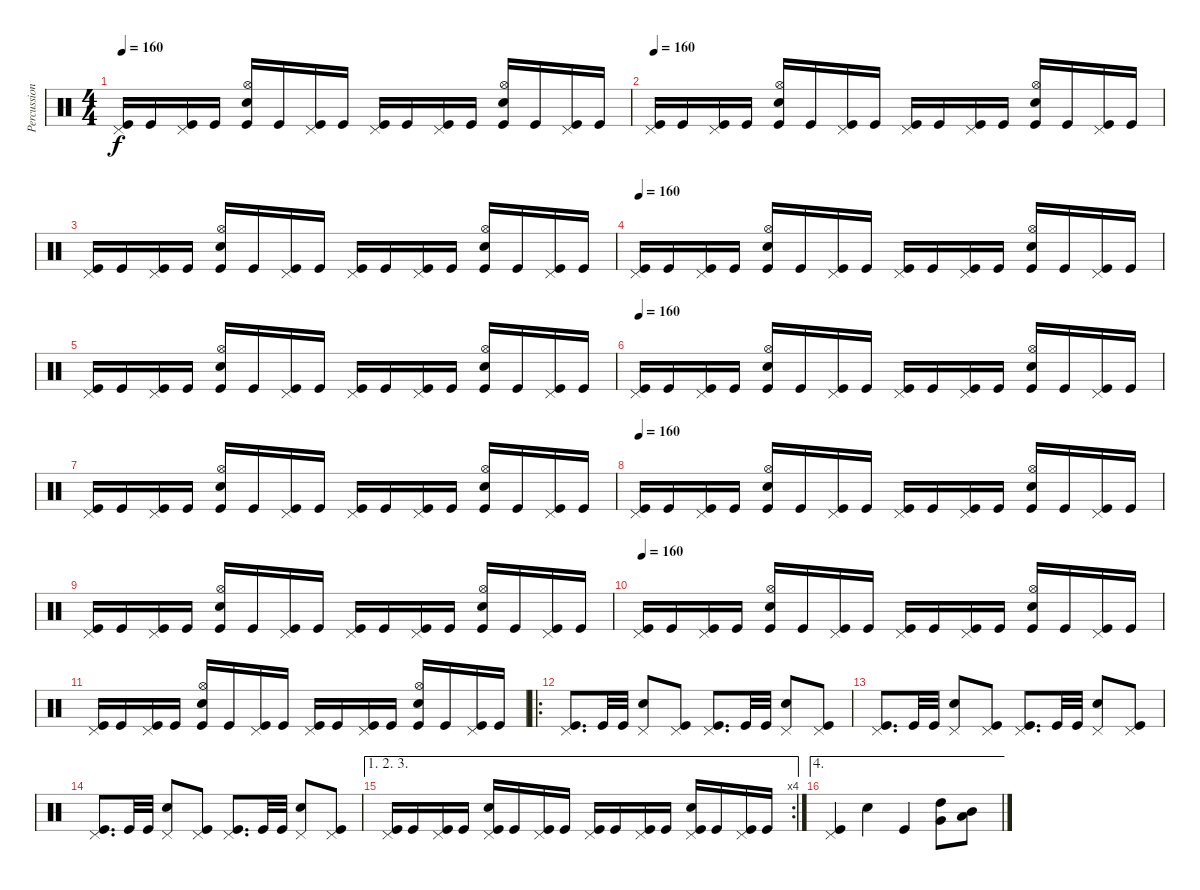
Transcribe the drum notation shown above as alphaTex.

\track ("Percussion" "Percussion") {instrument percussion}
\staff {score}
\articulation defaults
\ts (4 4)
\tempo 160
\clef neutral
\ks c
("Pedal Hi-Hat (hit)" "Kick (hit)").16{dy f} "Kick (hit)".16 ("Pedal Hi-Hat (hit)" "Kick (hit)").16 "Kick (hit)".16 ("Hi-Hat (open)" "Electric Snare (hit)" "Kick (hit)").16 "Kick (hit)".16 ("Pedal Hi-Hat (hit)" "Kick (hit)").16 "Kick (hit)".16 ("Pedal Hi-Hat (hit)" "Kick (hit)").16 "Kick (hit)".16 ("Pedal Hi-Hat (hit)" "Kick (hit)").16 "Kick (hit)".16 ("Hi-Hat (open)" "Electric Snare (hit)" "Kick (hit)").16 "Kick (hit)".16 ("Pedal Hi-Hat (hit)" "Kick (hit)").16 "Kick (hit)".16 |
\tempo 160
("Pedal Hi-Hat (hit)" "Kick (hit)").16 "Kick (hit)".16 ("Pedal Hi-Hat (hit)" "Kick (hit)").16 "Kick (hit)".16 ("Hi-Hat (open)" "Electric Snare (hit)" "Kick (hit)").16 "Kick (hit)".16 ("Pedal Hi-Hat (hit)" "Kick (hit)").16 "Kick (hit)".16 ("Pedal Hi-Hat (hit)" "Kick (hit)").16 "Kick (hit)".16 ("Pedal Hi-Hat (hit)" "Kick (hit)").16 "Kick (hit)".16 ("Hi-Hat (open)" "Electric Snare (hit)" "Kick (hit)").16 "Kick (hit)".16 ("Pedal Hi-Hat (hit)" "Kick (hit)").16 "Kick (hit)".16 |
("Pedal Hi-Hat (hit)" "Kick (hit)").16 "Kick (hit)".16 ("Pedal Hi-Hat (hit)" "Kick (hit)").16 "Kick (hit)".16 ("Hi-Hat (open)" "Electric Snare (hit)" "Kick (hit)").16 "Kick (hit)".16 ("Pedal Hi-Hat (hit)" "Kick (hit)").16 "Kick (hit)".16 ("Pedal Hi-Hat (hit)" "Kick (hit)").16 "Kick (hit)".16 ("Pedal Hi-Hat (hit)" "Kick (hit)").16 "Kick (hit)".16 ("Hi-Hat (open)" "Electric Snare (hit)" "Kick (hit)").16 "Kick (hit)".16 ("Pedal Hi-Hat (hit)" "Kick (hit)").16 "Kick (hit)".16 |
\tempo 160
("Pedal Hi-Hat (hit)" "Kick (hit)").16 "Kick (hit)".16 ("Pedal Hi-Hat (hit)" "Kick (hit)").16 "Kick (hit)".16 ("Hi-Hat (open)" "Electric Snare (hit)" "Kick (hit)").16 "Kick (hit)".16 ("Pedal Hi-Hat (hit)" "Kick (hit)").16 "Kick (hit)".16 ("Pedal Hi-Hat (hit)" "Kick (hit)").16 "Kick (hit)".16 ("Pedal Hi-Hat (hit)" "Kick (hit)").16 "Kick (hit)".16 ("Hi-Hat (open)" "Electric Snare (hit)" "Kick (hit)").16 "Kick (hit)".16 ("Pedal Hi-Hat (hit)" "Kick (hit)").16 "Kick (hit)".16 |
("Pedal Hi-Hat (hit)" "Kick (hit)").16 "Kick (hit)".16 ("Pedal Hi-Hat (hit)" "Kick (hit)").16 "Kick (hit)".16 ("Hi-Hat (open)" "Electric Snare (hit)" "Kick (hit)").16 "Kick (hit)".16 ("Pedal Hi-Hat (hit)" "Kick (hit)").16 "Kick (hit)".16 ("Pedal Hi-Hat (hit)" "Kick (hit)").16 "Kick (hit)".16 ("Pedal Hi-Hat (hit)" "Kick (hit)").16 "Kick (hit)".16 ("Hi-Hat (open)" "Electric Snare (hit)" "Kick (hit)").16 "Kick (hit)".16 ("Pedal Hi-Hat (hit)" "Kick (hit)").16 "Kick (hit)".16 |
\tempo 160
("Pedal Hi-Hat (hit)" "Kick (hit)").16 "Kick (hit)".16 ("Pedal Hi-Hat (hit)" "Kick (hit)").16 "Kick (hit)".16 ("Hi-Hat (open)" "Electric Snare (hit)" "Kick (hit)").16 "Kick (hit)".16 ("Pedal Hi-Hat (hit)" "Kick (hit)").16 "Kick (hit)".16 ("Pedal Hi-Hat (hit)" "Kick (hit)").16 "Kick (hit)".16 ("Pedal Hi-Hat (hit)" "Kick (hit)").16 "Kick (hit)".16 ("Hi-Hat (open)" "Electric Snare (hit)" "Kick (hit)").16 "Kick (hit)".16 ("Pedal Hi-Hat (hit)" "Kick (hit)").16 "Kick (hit)".16 |
("Pedal Hi-Hat (hit)" "Kick (hit)").16 "Kick (hit)".16 ("Pedal Hi-Hat (hit)" "Kick (hit)").16 "Kick (hit)".16 ("Hi-Hat (open)" "Electric Snare (hit)" "Kick (hit)").16 "Kick (hit)".16 ("Pedal Hi-Hat (hit)" "Kick (hit)").16 "Kick (hit)".16 ("Pedal Hi-Hat (hit)" "Kick (hit)").16 "Kick (hit)".16 ("Pedal Hi-Hat (hit)" "Kick (hit)").16 "Kick (hit)".16 ("Hi-Hat (open)" "Electric Snare (hit)" "Kick (hit)").16 "Kick (hit)".16 ("Pedal Hi-Hat (hit)" "Kick (hit)").16 "Kick (hit)".16 |
\tempo 160
("Pedal Hi-Hat (hit)" "Kick (hit)").16 "Kick (hit)".16 ("Pedal Hi-Hat (hit)" "Kick (hit)").16 "Kick (hit)".16 ("Hi-Hat (open)" "Electric Snare (hit)" "Kick (hit)").16 "Kick (hit)".16 ("Pedal Hi-Hat (hit)" "Kick (hit)").16 "Kick (hit)".16 ("Pedal Hi-Hat (hit)" "Kick (hit)").16 "Kick (hit)".16 ("Pedal Hi-Hat (hit)" "Kick (hit)").16 "Kick (hit)".16 ("Hi-Hat (open)" "Electric Snare (hit)" "Kick (hit)").16 "Kick (hit)".16 ("Pedal Hi-Hat (hit)" "Kick (hit)").16 "Kick (hit)".16 |
("Pedal Hi-Hat (hit)" "Kick (hit)").16 "Kick (hit)".16 ("Pedal Hi-Hat (hit)" "Kick (hit)").16 "Kick (hit)".16 ("Hi-Hat (open)" "Electric Snare (hit)" "Kick (hit)").16 "Kick (hit)".16 ("Pedal Hi-Hat (hit)" "Kick (hit)").16 "Kick (hit)".16 ("Pedal Hi-Hat (hit)" "Kick (hit)").16 "Kick (hit)".16 ("Pedal Hi-Hat (hit)" "Kick (hit)").16 "Kick (hit)".16 ("Hi-Hat (open)" "Electric Snare (hit)" "Kick (hit)").16 "Kick (hit)".16 ("Pedal Hi-Hat (hit)" "Kick (hit)").16 "Kick (hit)".16 |
\tempo 160
("Pedal Hi-Hat (hit)" "Kick (hit)").16 "Kick (hit)".16 ("Pedal Hi-Hat (hit)" "Kick (hit)").16 "Kick (hit)".16 ("Hi-Hat (open)" "Electric Snare (hit)" "Kick (hit)").16 "Kick (hit)".16 ("Pedal Hi-Hat (hit)" "Kick (hit)").16 "Kick (hit)".16 ("Pedal Hi-Hat (hit)" "Kick (hit)").16 "Kick (hit)".16 ("Pedal Hi-Hat (hit)" "Kick (hit)").16 "Kick (hit)".16 ("Hi-Hat (open)" "Electric Snare (hit)" "Kick (hit)").16 "Kick (hit)".16 ("Pedal Hi-Hat (hit)" "Kick (hit)").16 "Kick (hit)".16 |
("Pedal Hi-Hat (hit)" "Kick (hit)").16 "Kick (hit)".16 ("Pedal Hi-Hat (hit)" "Kick (hit)").16 "Kick (hit)".16 ("Hi-Hat (open)" "Electric Snare (hit)" "Kick (hit)").16 "Kick (hit)".16 ("Pedal Hi-Hat (hit)" "Kick (hit)").16 "Kick (hit)".16 ("Pedal Hi-Hat (hit)" "Kick (hit)").16 "Kick (hit)".16 ("Pedal Hi-Hat (hit)" "Kick (hit)").16 "Kick (hit)".16 ("Hi-Hat (open)" "Electric Snare (hit)" "Kick (hit)").16 "Kick (hit)".16 ("Pedal Hi-Hat (hit)" "Kick (hit)").16 "Kick (hit)".16 |
\ro
("Pedal Hi-Hat (hit)" "Kick (hit)").8{d} "Kick (hit)".32 "Kick (hit)".32 ("Pedal Hi-Hat (hit)" "Electric Snare (hit)").8 ("Pedal Hi-Hat (hit)" "Kick (hit)").8 ("Pedal Hi-Hat (hit)" "Kick (hit)").8{d} "Kick (hit)".32 "Kick (hit)".32 ("Pedal Hi-Hat (hit)" "Electric Snare (hit)").8 ("Pedal Hi-Hat (hit)" "Kick (hit)").8 |
("Pedal Hi-Hat (hit)" "Kick (hit)").8{d} "Kick (hit)".32 "Kick (hit)".32 ("Pedal Hi-Hat (hit)" "Electric Snare (hit)").8 ("Pedal Hi-Hat (hit)" "Kick (hit)").8 ("Pedal Hi-Hat (hit)" "Kick (hit)").8{d} "Kick (hit)".32 "Kick (hit)".32 ("Pedal Hi-Hat (hit)" "Electric Snare (hit)").8 ("Pedal Hi-Hat (hit)" "Kick (hit)").8 |
("Pedal Hi-Hat (hit)" "Kick (hit)").8{d} "Kick (hit)".32 "Kick (hit)".32 ("Pedal Hi-Hat (hit)" "Electric Snare (hit)").8 ("Pedal Hi-Hat (hit)" "Kick (hit)").8 ("Pedal Hi-Hat (hit)" "Kick (hit)").8{d} "Kick (hit)".32 "Kick (hit)".32 ("Pedal Hi-Hat (hit)" "Electric Snare (hit)").8 ("Pedal Hi-Hat (hit)" "Kick (hit)").8 |
\ae (1 2 3)
\rc 4
("Pedal Hi-Hat (hit)" "Kick (hit)").16 "Kick (hit)".16 ("Pedal Hi-Hat (hit)" "Kick (hit)").16 "Kick (hit)".16 ("Pedal Hi-Hat (hit)" "Electric Snare (hit)" "Kick (hit)").16 "Kick (hit)".16 ("Pedal Hi-Hat (hit)" "Kick (hit)").16 "Kick (hit)".16 ("Pedal Hi-Hat (hit)" "Kick (hit)").16 "Kick (hit)".16 ("Pedal Hi-Hat (hit)" "Kick (hit)").16 "Kick (hit)".16 ("Pedal Hi-Hat (hit)" "Electric Snare (hit)" "Kick (hit)").16 "Kick (hit)".16 ("Pedal Hi-Hat (hit)" "Kick (hit)").16 "Kick (hit)".16 |
\ae 4
("Pedal Hi-Hat (hit)" "Kick (hit)").4 "Electric Snare (hit)".4 "Kick (hit)".4 ("Very Low Tom (hit)" "High Tom (hit)").8 ("Low Tom (hit)" "Mid Tom (hit)").8
